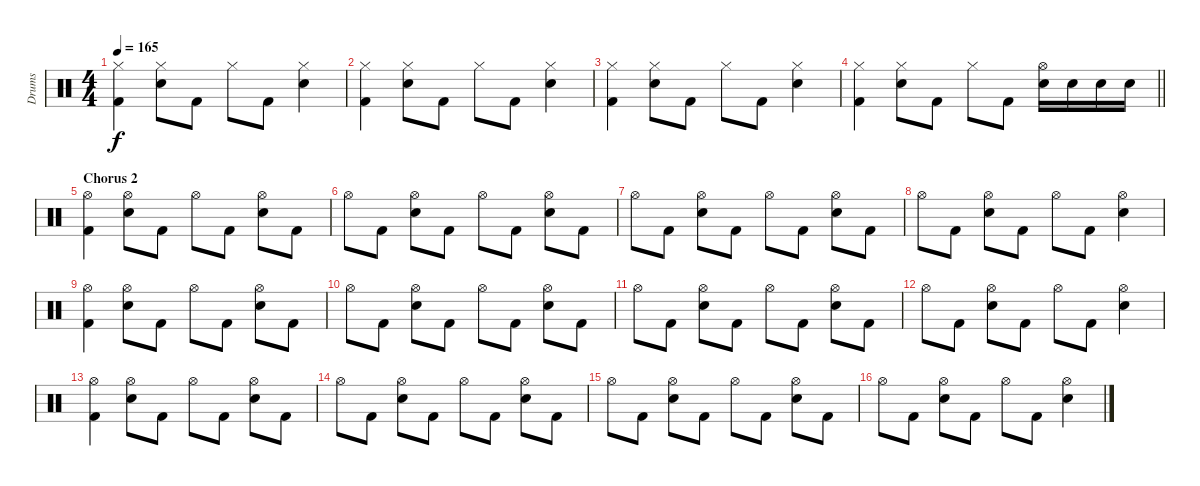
\track ("Drums" "Drums") {instrument percussion}
\staff {score}
\articulation defaults
\ts (4 4)
\tempo 165
\clef neutral
\ks c
("Hi-Hat (closed)" "Kick (hit) 2").4{dy f} ("Hi-Hat (closed)" "Electric Snare (hit)").8 "Kick (hit) 2".8 "Hi-Hat (closed)".8 "Kick (hit) 2".8 ("Hi-Hat (closed)" "Electric Snare (hit)").4 |
("Hi-Hat (closed)" "Kick (hit) 2").4 ("Hi-Hat (closed)" "Electric Snare (hit)").8 "Kick (hit) 2".8 "Hi-Hat (closed)".8 "Kick (hit) 2".8 ("Hi-Hat (closed)" "Electric Snare (hit)").4 |
("Hi-Hat (closed)" "Kick (hit) 2").4 ("Hi-Hat (closed)" "Electric Snare (hit)").8 "Kick (hit) 2".8 "Hi-Hat (closed)".8 "Kick (hit) 2".8 ("Hi-Hat (closed)" "Electric Snare (hit)").4 |
\barLineRight lightlight
("Hi-Hat (closed)" "Kick (hit) 2").4 ("Hi-Hat (closed)" "Electric Snare (hit)").8 "Kick (hit) 2".8 "Hi-Hat (closed)".8 "Kick (hit) 2".8 ("Hi-Hat (open)" "Electric Snare (hit)").16 "Electric Snare (hit)".16 "Electric Snare (hit)".16 "Electric Snare (hit)".16 |
\section ("" "Chorus 2")
("Hi-Hat (open)" "Kick (hit) 2").4 ("Hi-Hat (open)" "Electric Snare (hit)").8 "Kick (hit) 2".8 "Hi-Hat (open)".8 "Kick (hit) 2".8 ("Hi-Hat (open)" "Electric Snare (hit)").8 "Kick (hit) 2".8 |
"Hi-Hat (open)".8 "Kick (hit) 2".8 ("Hi-Hat (open)" "Electric Snare (hit)").8 "Kick (hit) 2".8 "Hi-Hat (open)".8 "Kick (hit) 2".8 ("Hi-Hat (open)" "Electric Snare (hit)").8 "Kick (hit) 2".8 |
"Hi-Hat (open)".8 "Kick (hit) 2".8 ("Hi-Hat (open)" "Electric Snare (hit)").8 "Kick (hit) 2".8 "Hi-Hat (open)".8 "Kick (hit) 2".8 ("Hi-Hat (open)" "Electric Snare (hit)").8 "Kick (hit) 2".8 |
"Hi-Hat (open)".8 "Kick (hit) 2".8 ("Hi-Hat (open)" "Electric Snare (hit)").8 "Kick (hit) 2".8 "Hi-Hat (open)".8 "Kick (hit) 2".8 ("Hi-Hat (open)" "Electric Snare (hit)").4 |
("Hi-Hat (open)" "Kick (hit) 2").4 ("Hi-Hat (open)" "Electric Snare (hit)").8 "Kick (hit) 2".8 "Hi-Hat (open)".8 "Kick (hit) 2".8 ("Hi-Hat (open)" "Electric Snare (hit)").8 "Kick (hit) 2".8 |
"Hi-Hat (open)".8 "Kick (hit) 2".8 ("Hi-Hat (open)" "Electric Snare (hit)").8 "Kick (hit) 2".8 "Hi-Hat (open)".8 "Kick (hit) 2".8 ("Hi-Hat (open)" "Electric Snare (hit)").8 "Kick (hit) 2".8 |
"Hi-Hat (open)".8 "Kick (hit) 2".8 ("Hi-Hat (open)" "Electric Snare (hit)").8 "Kick (hit) 2".8 "Hi-Hat (open)".8 "Kick (hit) 2".8 ("Hi-Hat (open)" "Electric Snare (hit)").8 "Kick (hit) 2".8 |
"Hi-Hat (open)".8 "Kick (hit) 2".8 ("Hi-Hat (open)" "Electric Snare (hit)").8 "Kick (hit) 2".8 "Hi-Hat (open)".8 "Kick (hit) 2".8 ("Hi-Hat (open)" "Electric Snare (hit)").4 |
("Hi-Hat (open)" "Kick (hit) 2").4 ("Hi-Hat (open)" "Electric Snare (hit)").8 "Kick (hit) 2".8 "Hi-Hat (open)".8 "Kick (hit) 2".8 ("Hi-Hat (open)" "Electric Snare (hit)").8 "Kick (hit) 2".8 |
"Hi-Hat (open)".8 "Kick (hit) 2".8 ("Hi-Hat (open)" "Electric Snare (hit)").8 "Kick (hit) 2".8 "Hi-Hat (open)".8 "Kick (hit) 2".8 ("Hi-Hat (open)" "Electric Snare (hit)").8 "Kick (hit) 2".8 |
"Hi-Hat (open)".8 "Kick (hit) 2".8 ("Hi-Hat (open)" "Electric Snare (hit)").8 "Kick (hit) 2".8 "Hi-Hat (open)".8 "Kick (hit) 2".8 ("Hi-Hat (open)" "Electric Snare (hit)").8 "Kick (hit) 2".8 |
"Hi-Hat (open)".8 "Kick (hit) 2".8 ("Hi-Hat (open)" "Electric Snare (hit)").8 "Kick (hit) 2".8 "Hi-Hat (open)".8 "Kick (hit) 2".8 ("Hi-Hat (open)" "Electric Snare (hit)").4
